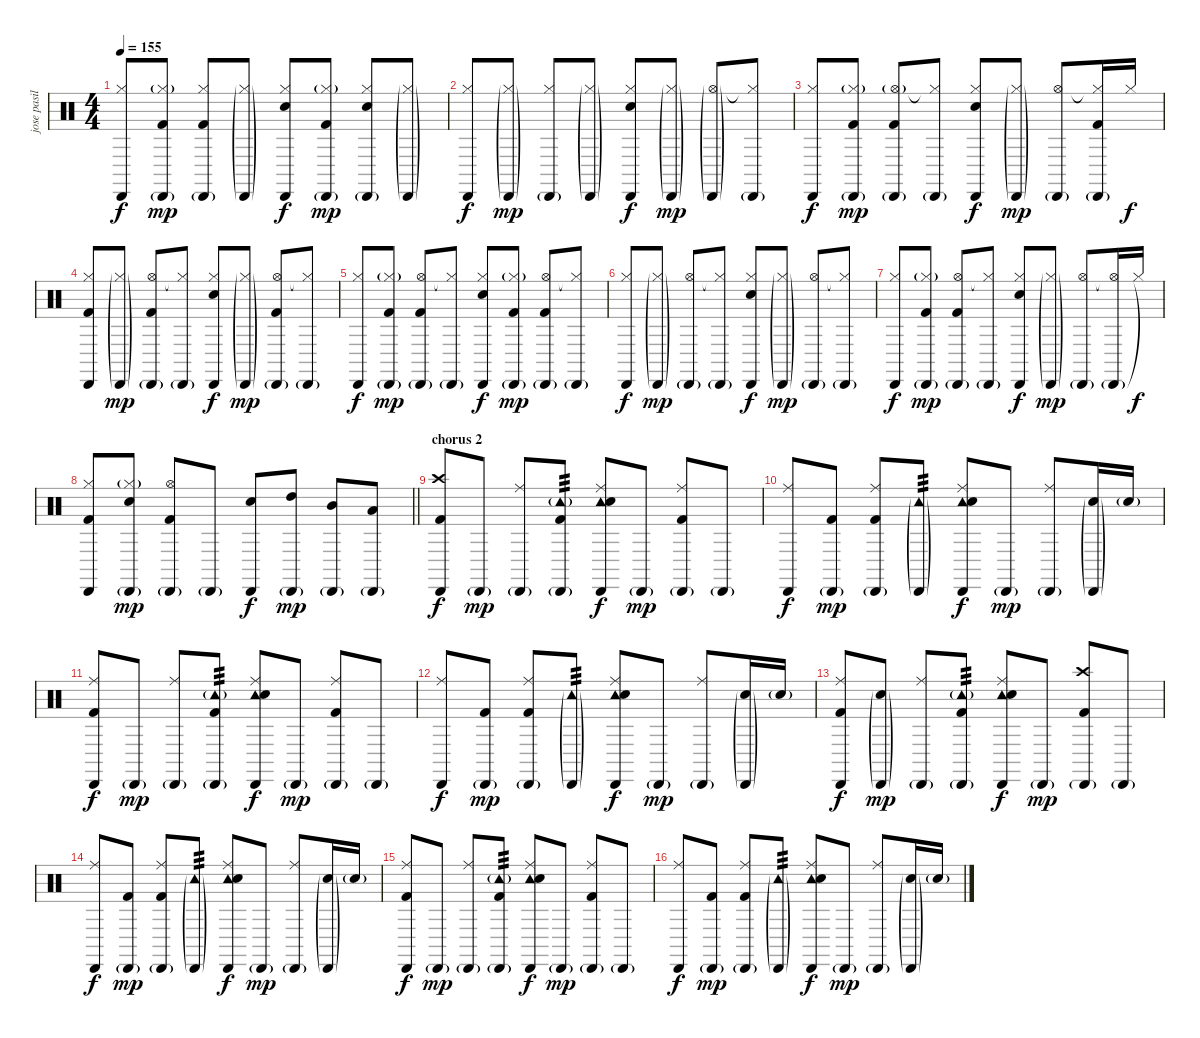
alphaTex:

\track ("jose pasillas" "jose pasil") {instrument percussion}
\staff {score}
\articulation defaults
\ts (4 4)
\tempo 155
\clef neutral
\ks c
("Cabasa (hit)" "Hi-Hat (closed)").8{dy f} ("Cabasa (hit)"{g} "Hi-Hat (closed)"{g} "Kick (hit) 2").8{dy mp} ("Cabasa (hit)"{g} "Hi-Hat (closed)" "Kick (hit) 2").8 ("Cabasa (hit)"{g} "Hi-Hat (closed)"{g}).8 ("Cabasa (hit)" "Hi-Hat (closed)" "Snare (hit) 2").8{dy f} ("Cabasa (hit)"{g} "Hi-Hat (closed)"{g} "Kick (hit) 2").8{dy mp} ("Cabasa (hit)"{g} "Hi-Hat (closed)" "Snare (hit) 2").8 ("Cabasa (hit)"{g} "Hi-Hat (closed)"{g}).8 |
("Cabasa (hit)" "Hi-Hat (closed)").8{dy f} ("Cabasa (hit)"{g} "Hi-Hat (closed)"{g}).8{dy mp} ("Cabasa (hit)"{g} "Hi-Hat (closed)").8 ("Cabasa (hit)"{g} "Hi-Hat (closed)"{g}).8 ("Cabasa (hit)" "Hi-Hat (closed)" "Snare (hit) 2").8{dy f} ("Cabasa (hit)"{g} "Hi-Hat (closed)"{g}).8{dy mp} ("Cabasa (hit)"{g} "Hi-Hat (open)"{g}).8 ("Cabasa (hit)"{g} "Hi-Hat (closed)"{t}).8 |
("Cabasa (hit)" "Hi-Hat (closed)").8{dy f} ("Cabasa (hit)"{g} "Hi-Hat (closed)"{g} "Kick (hit) 2").8{dy mp} ("Cabasa (hit)"{g} "Hi-Hat (open)"{g} "Kick (hit) 2").8 ("Cabasa (hit)"{g} "Hi-Hat (closed)"{t}).8 ("Cabasa (hit)" "Hi-Hat (closed)" "Snare (hit) 2").8{dy f} ("Cabasa (hit)"{g} "Hi-Hat (closed)"{g}).8{dy mp} ("Cabasa (hit)"{g} "Hi-Hat (open)").8 ("Cabasa (hit)"{g} "Hi-Hat (closed)"{t} "Kick (hit) 2").16 "Hi-Hat (closed)".16{dy f} |
("Cabasa (hit)" "Hi-Hat (closed)" "Kick (hit) 2").8 ("Cabasa (hit)"{g} "Hi-Hat (closed)"{g}).8{dy mp} ("Cabasa (hit)"{g} "Hi-Hat (open)" "Kick (hit) 2").8 ("Cabasa (hit)"{g} "Hi-Hat (closed)"{t}).8 ("Cabasa (hit)" "Hi-Hat (closed)" "Snare (hit) 2").8{dy f} ("Cabasa (hit)"{g} "Hi-Hat (closed)"{g}).8{dy mp} ("Cabasa (hit)"{g} "Hi-Hat (open)" "Kick (hit) 2").8 ("Cabasa (hit)"{g} "Hi-Hat (closed)"{t}).8 |
("Cabasa (hit)" "Hi-Hat (closed)").8{dy f} ("Cabasa (hit)"{g} "Hi-Hat (closed)"{g} "Kick (hit) 2").8{dy mp} ("Cabasa (hit)"{g} "Hi-Hat (open)" "Kick (hit) 2").8 ("Cabasa (hit)"{g} "Hi-Hat (closed)"{t}).8 ("Cabasa (hit)" "Hi-Hat (closed)" "Snare (hit) 2").8{dy f} ("Cabasa (hit)"{g} "Hi-Hat (closed)"{g} "Kick (hit) 2").8{dy mp} ("Cabasa (hit)"{g} "Hi-Hat (open)" "Kick (hit) 2").8 ("Cabasa (hit)"{g} "Hi-Hat (closed)"{t}).8 |
("Cabasa (hit)" "Hi-Hat (closed)").8{dy f} ("Cabasa (hit)"{g} "Hi-Hat (closed)"{g}).8{dy mp} ("Cabasa (hit)"{g} "Hi-Hat (open)").8 ("Cabasa (hit)"{g} "Hi-Hat (closed)"{t}).8 ("Cabasa (hit)" "Hi-Hat (closed)" "Snare (hit) 2").8{dy f} ("Cabasa (hit)"{g} "Hi-Hat (closed)"{g}).8{dy mp} ("Cabasa (hit)"{g} "Hi-Hat (open)").8 ("Cabasa (hit)"{g} "Hi-Hat (closed)"{t}).8 |
("Cabasa (hit)" "Hi-Hat (closed)").8{dy f} ("Cabasa (hit)"{g} "Hi-Hat (closed)"{g} "Kick (hit) 2").8{dy mp} ("Cabasa (hit)"{g} "Hi-Hat (open)" "Kick (hit) 2").8 ("Cabasa (hit)"{g} "Hi-Hat (closed)"{t}).8 ("Cabasa (hit)" "Hi-Hat (closed)" "Snare (hit) 2").8{dy f} ("Cabasa (hit)"{g} "Hi-Hat (closed)"{g}).8{dy mp} ("Cabasa (hit)"{g} "Hi-Hat (open)").8 ("Cabasa (hit)"{g} "Hi-Hat (open)"{t}).16 "Hi-Hat (closed)"{t}.16{dy f} |
\barLineRight lightlight
("Cabasa (hit)" "Hi-Hat (closed)" "Kick (hit) 2").8 ("Cabasa (hit)"{g} "Hi-Hat (closed)"{g} "Snare (hit) 2").8{dy mp} ("Cabasa (hit)"{g} "Hi-Hat (open)" "Kick (hit) 2").8 "Cabasa (hit)"{g}.8 ("Cabasa (hit)" "Snare (hit) 2").8{dy f} ("Cabasa (hit)"{g} "High Tom (hit)").8{dy mp} ("Cabasa (hit)"{g} "Mid Tom (hit)").8 ("Cabasa (hit)"{g} "Low Tom (hit)").8 |
\section ("" "chorus 2")
("Cabasa (hit)" "Crash high (hit)" "Kick (hit) 2").8{dy f} "Cabasa (hit)"{g}.8{dy mp} ("Cabasa (hit)"{g} "Ride (middle)").8 ("Cabasa (hit)"{g} "Tambourine (hit)"{g} "Kick (hit) 2").8{tp 3} ("Cabasa (hit)" "Tambourine (hit)" "Ride (middle)" "Snare (hit) 2").8{dy f} "Cabasa (hit)"{g}.8{dy mp} ("Cabasa (hit)"{g} "Ride (middle)" "Kick (hit) 2").8 "Cabasa (hit)"{g}.8 |
("Cabasa (hit)" "Ride (middle)").8{dy f} ("Cabasa (hit)"{g} "Kick (hit) 2").8{dy mp} ("Cabasa (hit)"{g} "Ride (middle)" "Kick (hit) 2").8 ("Cabasa (hit)"{g} "Tambourine (hit)"{g}).8{tp 3} ("Cabasa (hit)" "Tambourine (hit)" "Ride (middle)" "Snare (hit) 2").8{dy f} "Cabasa (hit)"{g}.8{dy mp} ("Cabasa (hit)"{g} "Ride (middle)").8 ("Cabasa (hit)"{g} "Snare (hit) 2"{g}).16 "Snare (hit) 2"{g}.16 |
("Cabasa (hit)" "Ride (middle)" "Kick (hit) 2").8{dy f} "Cabasa (hit)"{g}.8{dy mp} ("Cabasa (hit)"{g} "Ride (middle)").8 ("Cabasa (hit)"{g} "Tambourine (hit)"{g} "Kick (hit) 2").8{tp 3} ("Cabasa (hit)" "Tambourine (hit)" "Ride (middle)" "Snare (hit) 2").8{dy f} "Cabasa (hit)"{g}.8{dy mp} ("Cabasa (hit)"{g} "Ride (middle)" "Kick (hit) 2").8 "Cabasa (hit)"{g}.8 |
("Cabasa (hit)" "Ride (middle)").8{dy f} ("Cabasa (hit)"{g} "Kick (hit) 2").8{dy mp} ("Cabasa (hit)"{g} "Ride (middle)" "Kick (hit) 2").8 ("Cabasa (hit)"{g} "Tambourine (hit)"{g}).8{tp 3} ("Cabasa (hit)" "Tambourine (hit)" "Ride (middle)" "Snare (hit) 2").8{dy f} "Cabasa (hit)"{g}.8{dy mp} ("Cabasa (hit)"{g} "Ride (middle)").8 ("Cabasa (hit)"{g} "Snare (hit) 2"{g}).16 "Snare (hit) 2"{g}.16 |
("Cabasa (hit)" "Ride (middle)" "Kick (hit) 2").8{dy f} ("Cabasa (hit)"{g} "Snare (hit) 2"{g}).8{dy mp} ("Cabasa (hit)"{g} "Ride (middle)").8 ("Cabasa (hit)"{g} "Tambourine (hit)"{g} "Kick (hit) 2").8{tp 3} ("Cabasa (hit)" "Tambourine (hit)" "Ride (middle)" "Snare (hit) 2").8{dy f} "Cabasa (hit)"{g}.8{dy mp} ("Cabasa (hit)"{g} "Crash high (hit)" "Kick (hit) 2").8 "Cabasa (hit)"{g}.8 |
("Cabasa (hit)" "Ride (middle)").8{dy f} ("Cabasa (hit)"{g} "Kick (hit) 2").8{dy mp} ("Cabasa (hit)"{g} "Ride (middle)" "Kick (hit) 2").8 ("Cabasa (hit)"{g} "Tambourine (hit)"{g}).8{tp 3} ("Cabasa (hit)" "Tambourine (hit)" "Ride (middle)" "Snare (hit) 2").8{dy f} "Cabasa (hit)"{g}.8{dy mp} ("Cabasa (hit)"{g} "Ride (middle)").8 ("Cabasa (hit)"{g} "Snare (hit) 2"{g}).16 "Snare (hit) 2"{g}.16 |
("Cabasa (hit)" "Ride (middle)" "Kick (hit) 2").8{dy f} "Cabasa (hit)"{g}.8{dy mp} ("Cabasa (hit)"{g} "Ride (middle)").8 ("Cabasa (hit)"{g} "Tambourine (hit)"{g} "Kick (hit) 2").8{tp 3} ("Cabasa (hit)" "Tambourine (hit)" "Ride (middle)" "Snare (hit) 2").8{dy f} "Cabasa (hit)"{g}.8{dy mp} ("Cabasa (hit)"{g} "Ride (middle)" "Kick (hit) 2").8 "Cabasa (hit)"{g}.8 |
("Cabasa (hit)" "Ride (middle)").8{dy f} ("Cabasa (hit)"{g} "Kick (hit) 2").8{dy mp} ("Cabasa (hit)"{g} "Ride (middle)" "Kick (hit) 2").8 ("Cabasa (hit)"{g} "Tambourine (hit)"{g}).8{tp 3} ("Cabasa (hit)" "Tambourine (hit)" "Ride (middle)" "Snare (hit) 2").8{dy f} "Cabasa (hit)"{g}.8{dy mp} ("Cabasa (hit)"{g} "Ride (middle)").8 ("Cabasa (hit)"{g} "Snare (hit) 2"{g}).16 "Snare (hit) 2"{g}.16
